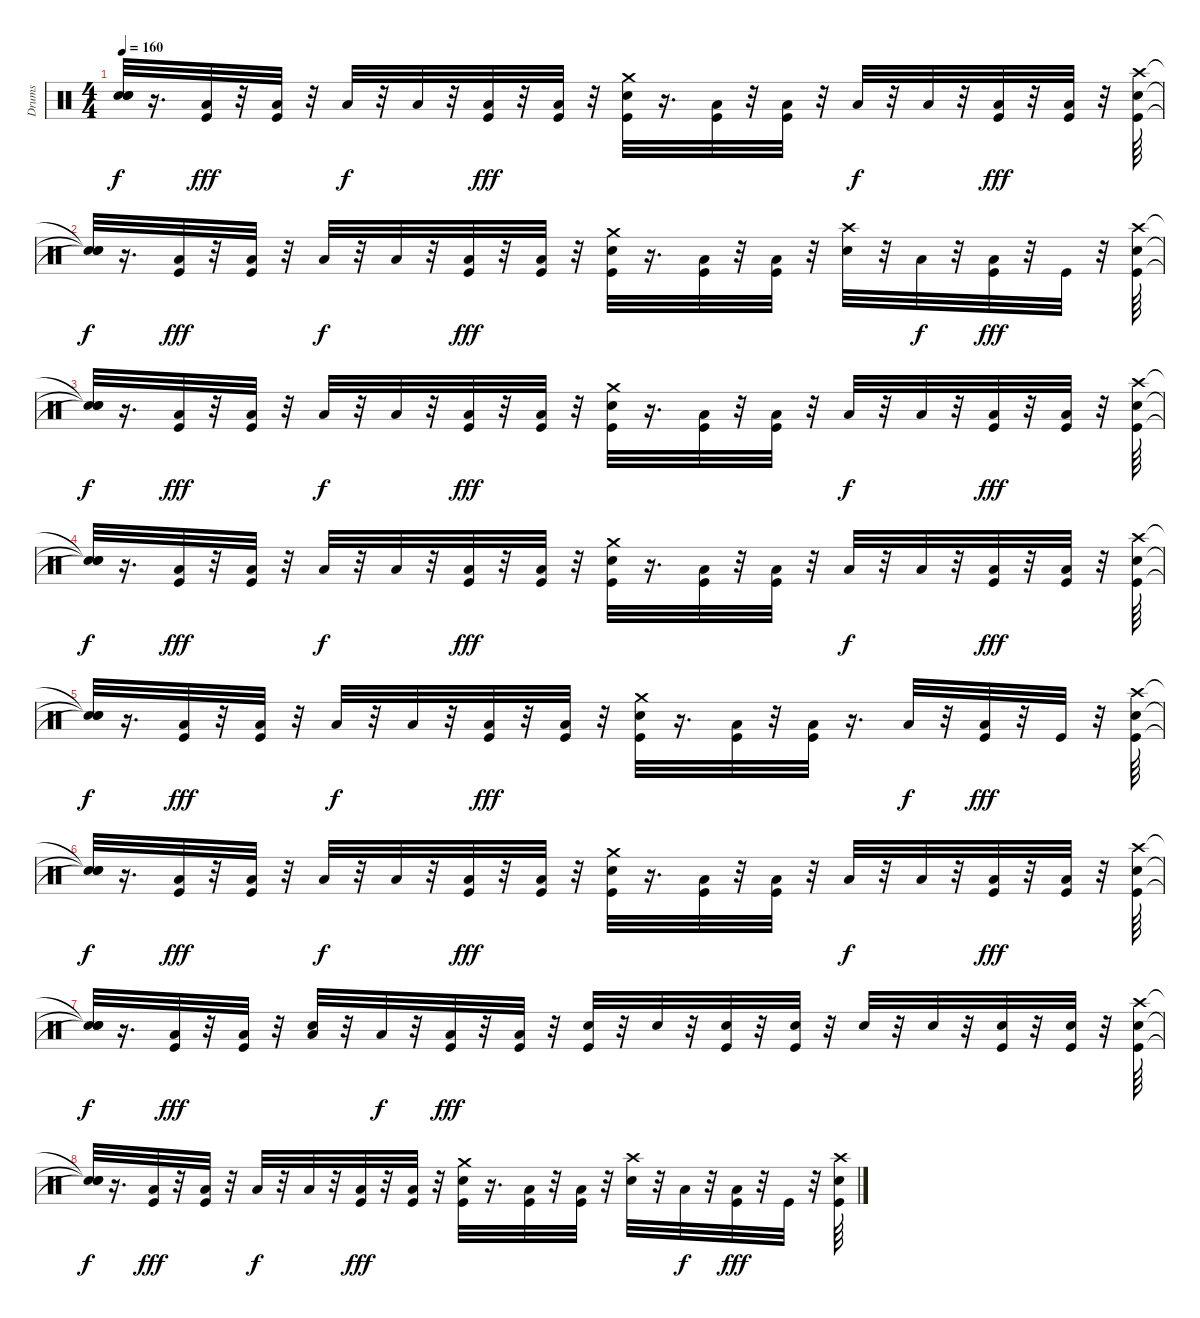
\track ("Drums" "Drums") {instrument percussion}
\staff {score}
\articulation defaults
\ts (4 4)
\tempo 160
\clef neutral
\ks c
("Snare (hit)"{t} "Snare (hit)"{t} "Snare (hit)"{t}).32{dy f} r.16{d} ("Kick (hit)" "Low Floor Tom (hit)").32{dy fff} r.32 ("Kick (hit)" "Low Tom (hit)").32 r.32 "Low Tom (hit)".32{dy f} r.32 "Low Floor Tom (hit)".32 r.32 ("Kick (hit)" "Low Floor Tom (hit)").32{dy fff} r.32 ("Kick (hit)" "Low Floor Tom (hit)").32 r.32 ("Kick (hit)" "Electric Snare (hit)" "Crash medium (hit)").32 r.16{d} ("Kick (hit)" "Low Tom (hit)").32 r.32 ("Kick (hit)" "Low Floor Tom (hit)").32 r.32 "Low Tom (hit)".32{dy f} r.32 "Low Floor Tom (hit)".32 r.32 ("Kick (hit)" "Low Floor Tom (hit)").32{dy fff} r.32 ("Kick (hit)" "Low Floor Tom (hit)").32 r.32 ("Kick (hit)" "Electric Snare (hit)" "Crash high (hit)").64 |
("Snare (hit)"{t} "Snare (hit)"{t} "Snare (hit)"{t}).32{dy f} r.16{d} ("Kick (hit)" "Low Floor Tom (hit)").32{dy fff} r.32 ("Kick (hit)" "Low Tom (hit)").32 r.32 "Low Tom (hit)".32{dy f} r.32 "Low Floor Tom (hit)".32 r.32 ("Kick (hit)" "Low Floor Tom (hit)").32{dy fff} r.32 ("Kick (hit)" "Low Floor Tom (hit)").32 r.32 ("Kick (hit)" "Electric Snare (hit)" "Crash medium (hit)").32 r.16{d} ("Kick (hit)" "Low Tom (hit)").32 r.32 ("Kick (hit)" "Low Floor Tom (hit)").32 r.32 ("Electric Snare (hit)" "Crash high (hit)").32 r.32 "Low Floor Tom (hit)".32{dy f} r.32 ("Kick (hit)" "Low Floor Tom (hit)").32{dy fff} r.32 "Kick (hit)".32 r.32 ("Kick (hit)" "Electric Snare (hit)" "Crash high (hit)").64 |
("Snare (hit)"{t} "Snare (hit)"{t} "Snare (hit)"{t}).32{dy f} r.16{d} ("Kick (hit)" "Low Floor Tom (hit)").32{dy fff} r.32 ("Kick (hit)" "Low Tom (hit)").32 r.32 "Low Tom (hit)".32{dy f} r.32 "Low Floor Tom (hit)".32 r.32 ("Kick (hit)" "Low Floor Tom (hit)").32{dy fff} r.32 ("Kick (hit)" "Low Floor Tom (hit)").32 r.32 ("Crash medium (hit)" "Kick (hit)" "Electric Snare (hit)").32 r.16{d} ("Kick (hit)" "Low Tom (hit)").32 r.32 ("Kick (hit)" "Low Floor Tom (hit)").32 r.32 "Low Tom (hit)".32{dy f} r.32 "Low Floor Tom (hit)".32 r.32 ("Kick (hit)" "Low Floor Tom (hit)").32{dy fff} r.32 ("Kick (hit)" "Low Floor Tom (hit)").32 r.32 ("Kick (hit)" "Electric Snare (hit)" "Crash high (hit)").64 |
("Snare (hit)"{t} "Snare (hit)"{t} "Snare (hit)"{t}).32{dy f} r.16{d} ("Kick (hit)" "Low Floor Tom (hit)").32{dy fff} r.32 ("Kick (hit)" "Low Tom (hit)").32 r.32 "Low Tom (hit)".32{dy f} r.32 "Low Floor Tom (hit)".32 r.32 ("Kick (hit)" "Low Floor Tom (hit)").32{dy fff} r.32 ("Kick (hit)" "Low Floor Tom (hit)").32 r.32 ("Crash medium (hit)" "Kick (hit)" "Electric Snare (hit)").32 r.16{d} ("Kick (hit)" "Low Tom (hit)").32 r.32 ("Kick (hit)" "Low Floor Tom (hit)").32 r.32 "Low Tom (hit)".32{dy f} r.32 "Low Floor Tom (hit)".32 r.32 ("Kick (hit)" "Low Floor Tom (hit)").32{dy fff} r.32 ("Kick (hit)" "Low Floor Tom (hit)").32 r.32 ("Kick (hit)" "Electric Snare (hit)" "Crash high (hit)").64 |
("Snare (hit)"{t} "Snare (hit)"{t} "Snare (hit)"{t}).32{dy f} r.16{d} ("Kick (hit)" "Low Floor Tom (hit)").32{dy fff} r.32 ("Kick (hit)" "Low Tom (hit)").32 r.32 "Low Tom (hit)".32{dy f} r.32 "Low Floor Tom (hit)".32 r.32 ("Kick (hit)" "Low Floor Tom (hit)").32{dy fff} r.32 ("Kick (hit)" "Low Floor Tom (hit)").32 r.32 ("Crash medium (hit)" "Kick (hit)" "Electric Snare (hit)").32 r.16{d} ("Kick (hit)" "Low Tom (hit)").32 r.32 ("Kick (hit)" "Low Floor Tom (hit)").32 r.16{d} "Low Floor Tom (hit)".32{dy f} r.32 ("Kick (hit)" "Low Floor Tom (hit)").32{dy fff} r.32 "Kick (hit)".32 r.32 ("Kick (hit)" "Electric Snare (hit)" "Crash high (hit)").64 |
("Snare (hit)"{t} "Snare (hit)"{t} "Snare (hit)"{t}).32{dy f} r.16{d} ("Kick (hit)" "Low Floor Tom (hit)").32{dy fff} r.32 ("Kick (hit)" "Low Tom (hit)").32 r.32 "Low Tom (hit)".32{dy f} r.32 "Low Floor Tom (hit)".32 r.32 ("Kick (hit)" "Low Floor Tom (hit)").32{dy fff} r.32 ("Kick (hit)" "Low Floor Tom (hit)").32 r.32 ("Crash medium (hit)" "Kick (hit)" "Electric Snare (hit)").32 r.16{d} ("Kick (hit)" "Low Tom (hit)").32 r.32 ("Kick (hit)" "Low Floor Tom (hit)").32 r.32 "Low Tom (hit)".32{dy f} r.32 "Low Floor Tom (hit)".32 r.32 ("Kick (hit)" "Low Floor Tom (hit)").32{dy fff} r.32 ("Kick (hit)" "Low Floor Tom (hit)").32 r.32 ("Kick (hit)" "Electric Snare (hit)" "Crash high (hit)").64 |
("Snare (hit)"{t} "Snare (hit)"{t} "Snare (hit)"{t}).32{dy f} r.16{d} ("Kick (hit)" "Low Floor Tom (hit)").32{dy fff} r.32 ("Kick (hit)" "Low Tom (hit)").32 r.32 ("Electric Snare (hit)" "Low Tom (hit)").32 r.32 "Low Floor Tom (hit)".32{dy f} r.32 ("Kick (hit)" "Low Floor Tom (hit)").32{dy fff} r.32 ("Kick (hit)" "Low Floor Tom (hit)").32 r.32 ("Kick (hit)" "Electric Snare (hit)").32 r.32 "Electric Snare (hit)".32 r.32 ("Electric Snare (hit)" "Kick (hit)").32 r.32 ("Electric Snare (hit)" "Kick (hit)").32 r.32 "Electric Snare (hit)".32 r.32 "Electric Snare (hit)".32 r.32 ("Electric Snare (hit)" "Kick (hit)").32 r.32 ("Electric Snare (hit)" "Kick (hit)").32 r.32 ("Kick (hit)" "Electric Snare (hit)" "Crash high (hit)").64 |
("Snare (hit)"{t} "Snare (hit)"{t} "Snare (hit)"{t}).32{dy f} r.16{d} ("Kick (hit)" "Low Floor Tom (hit)").32{dy fff} r.32 ("Kick (hit)" "Low Tom (hit)").32 r.32 "Low Tom (hit)".32{dy f} r.32 "Low Floor Tom (hit)".32 r.32 ("Kick (hit)" "Low Floor Tom (hit)").32{dy fff} r.32 ("Kick (hit)" "Low Floor Tom (hit)").32 r.32 ("Crash medium (hit)" "Kick (hit)" "Electric Snare (hit)").32 r.16{d} ("Kick (hit)" "Low Tom (hit)").32 r.32 ("Kick (hit)" "Low Floor Tom (hit)").32 r.32 ("Electric Snare (hit)" "Crash high (hit)").32 r.32 "Low Floor Tom (hit)".32{dy f} r.32 ("Kick (hit)" "Low Floor Tom (hit)").32{dy fff} r.32 "Kick (hit)".32 r.32 ("Kick (hit)" "Electric Snare (hit)" "Crash high (hit)").64
